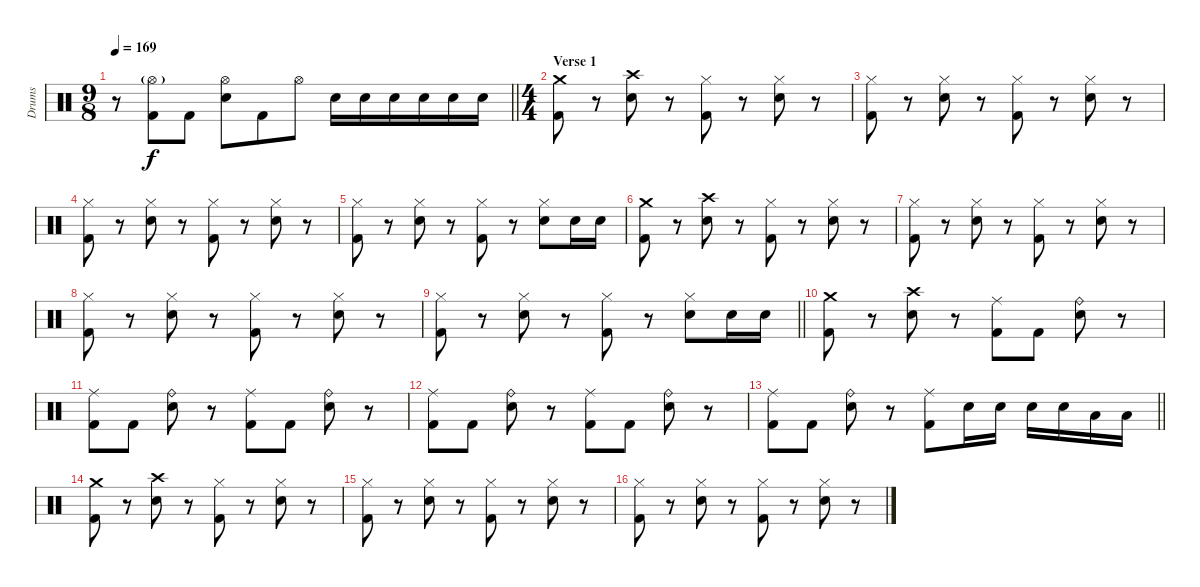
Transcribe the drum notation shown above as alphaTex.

\track ("Drums" "Drums") {instrument percussion}
\staff {score}
\articulation defaults
\ts (9 8)
\tempo 169
\clef neutral
\barLineRight lightlight
\ks c
r.8{dy f} ("Hi-Hat (open)"{g} "Kick (hit) 2").8 "Kick (hit) 2".8 ("Hi-Hat (open)" "Electric Snare (hit)").8 "Kick (hit) 2".8 "Hi-Hat (open)".8 "Electric Snare (hit)".16 "Electric Snare (hit)".16 "Electric Snare (hit)".16 "Electric Snare (hit)".16 "Electric Snare (hit)".16 "Electric Snare (hit)".16 |
\ts (4 4)
\section ("" "Verse 1")
("Crash medium (hit)" "Kick (hit) 2").8 r.8 ("Crash high (hit)" "Electric Snare (hit)").8 r.8 ("Hi-Hat (closed)" "Kick (hit) 2").8 r.8 ("Hi-Hat (closed)" "Electric Snare (hit)").8 r.8 |
("Hi-Hat (closed)" "Kick (hit) 2").8 r.8 ("Hi-Hat (closed)" "Electric Snare (hit)").8 r.8 ("Hi-Hat (closed)" "Kick (hit) 2").8 r.8 ("Hi-Hat (closed)" "Electric Snare (hit)").8 r.8 |
("Hi-Hat (closed)" "Kick (hit) 2").8 r.8 ("Hi-Hat (closed)" "Electric Snare (hit)").8 r.8 ("Hi-Hat (closed)" "Kick (hit) 2").8 r.8 ("Hi-Hat (closed)" "Electric Snare (hit)").8 r.8 |
("Hi-Hat (closed)" "Kick (hit) 2").8 r.8 ("Hi-Hat (closed)" "Electric Snare (hit)").8 r.8 ("Hi-Hat (closed)" "Kick (hit) 2").8 r.8 ("Hi-Hat (closed)" "Electric Snare (hit)").8 "Electric Snare (hit)".16 "Electric Snare (hit)".16 |
("Crash medium (hit)" "Kick (hit) 2").8 r.8 ("Crash high (hit)" "Electric Snare (hit)").8 r.8 ("Hi-Hat (closed)" "Kick (hit) 2").8 r.8 ("Hi-Hat (closed)" "Electric Snare (hit)").8 r.8 |
("Hi-Hat (closed)" "Kick (hit) 2").8 r.8 ("Hi-Hat (closed)" "Electric Snare (hit)").8 r.8 ("Hi-Hat (closed)" "Kick (hit) 2").8 r.8 ("Hi-Hat (closed)" "Electric Snare (hit)").8 r.8 |
("Hi-Hat (closed)" "Kick (hit) 2").8 r.8 ("Hi-Hat (closed)" "Electric Snare (hit)").8 r.8 ("Hi-Hat (closed)" "Kick (hit) 2").8 r.8 ("Hi-Hat (closed)" "Electric Snare (hit)").8 r.8 |
\barLineRight lightlight
("Hi-Hat (closed)" "Kick (hit) 2").8 r.8 ("Hi-Hat (closed)" "Electric Snare (hit)").8 r.8 ("Hi-Hat (closed)" "Kick (hit) 2").8 r.8 ("Hi-Hat (closed)" "Electric Snare (hit)").8 "Electric Snare (hit)".16 "Electric Snare (hit)".16 |
("Crash medium (hit)" "Kick (hit) 2").8 r.8 ("Crash high (hit)" "Electric Snare (hit)").8 r.8 ("Ride (middle)" "Kick (hit) 2").8 "Kick (hit) 2".8 ("Ride (bell)" "Electric Snare (hit)").8 r.8 |
("Ride (middle)" "Kick (hit) 2").8 "Kick (hit) 2".8 ("Ride (bell)" "Electric Snare (hit)").8 r.8 ("Ride (middle)" "Kick (hit) 2").8 "Kick (hit) 2".8 ("Ride (bell)" "Electric Snare (hit)").8 r.8 |
("Ride (middle)" "Kick (hit) 2").8 "Kick (hit) 2".8 ("Ride (bell)" "Electric Snare (hit)").8 r.8 ("Ride (middle)" "Kick (hit) 2").8 "Kick (hit) 2".8 ("Ride (bell)" "Electric Snare (hit)").8 r.8 |
\barLineRight lightlight
("Ride (middle)" "Kick (hit) 2").8 "Kick (hit) 2".8 ("Ride (bell)" "Electric Snare (hit)").8 r.8 ("Ride (middle)" "Kick (hit) 2").8 "Electric Snare (hit)".16 "Electric Snare (hit)".16 "Electric Snare (hit)".16 "Electric Snare (hit)".16 "Low Tom (hit)".16 "Low Floor Tom (hit)".16 |
("Crash medium (hit)" "Kick (hit) 2").8 r.8 ("Crash high (hit)" "Electric Snare (hit)").8 r.8 ("Hi-Hat (closed)" "Kick (hit) 2").8 r.8 ("Hi-Hat (closed)" "Electric Snare (hit)").8 r.8 |
("Hi-Hat (closed)" "Kick (hit) 2").8 r.8 ("Hi-Hat (closed)" "Electric Snare (hit)").8 r.8 ("Hi-Hat (closed)" "Kick (hit) 2").8 r.8 ("Hi-Hat (closed)" "Electric Snare (hit)").8 r.8 |
("Hi-Hat (closed)" "Kick (hit) 2").8 r.8 ("Hi-Hat (closed)" "Electric Snare (hit)").8 r.8 ("Hi-Hat (closed)" "Kick (hit) 2").8 r.8 ("Hi-Hat (closed)" "Electric Snare (hit)").8 r.8
